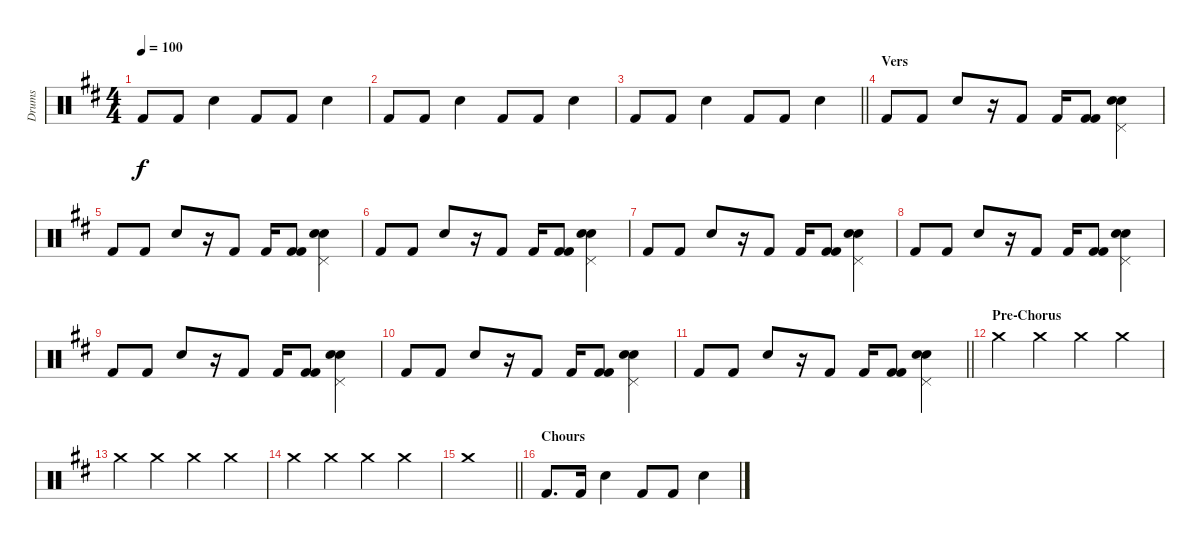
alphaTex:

\track ("Drums" "Drums") {instrument percussion}
\staff {score}
\articulation defaults
\ts (4 4)
\tempo 100
\clef neutral
\ks d "Kick (hit) 2".8{dy f} "Kick (hit) 2".8 "Snare (hit) 2".4 "Kick (hit) 2".8 "Kick (hit) 2".8 "Snare (hit) 2".4
|
"Kick (hit) 2".8 "Kick (hit) 2".8 "Snare (hit) 2".4 "Kick (hit) 2".8 "Kick (hit) 2".8 "Snare (hit) 2".4 |
\barLineRight lightlight "Kick (hit) 2".8 "Kick (hit) 2".8 "Snare (hit) 2".4 "Kick (hit) 2".8 "Kick (hit) 2".8 "Snare (hit) 2".4
|
\section ("" "Vers")
"Kick (hit) 2".8 "Kick (hit) 2".8 "Snare (hit) 2".8 r.16 "Kick (hit) 2".8 "Kick (hit) 2".16 ("Kick (hit) 2" "Kick (hit) 2").8 ("Snare (hit) 2" "Pedal Hi-Hat (hit)" "Electric Snare (hit)").4 |
"Kick (hit) 2".8 "Kick (hit) 2".8 "Snare (hit) 2".8 r.16 "Kick (hit) 2".8 "Kick (hit) 2".16 ("Kick (hit) 2" "Kick (hit) 2").8 ("Snare (hit) 2" "Pedal Hi-Hat (hit)" "Electric Snare (hit)").4 |
"Kick (hit) 2".8 "Kick (hit) 2".8 "Snare (hit) 2".8 r.16 "Kick (hit) 2".8 "Kick (hit) 2".16 ("Kick (hit) 2" "Kick (hit) 2").8 ("Snare (hit) 2" "Pedal Hi-Hat (hit)" "Electric Snare (hit)").4 |
"Kick (hit) 2".8 "Kick (hit) 2".8 "Snare (hit) 2".8 r.16 "Kick (hit) 2".8 "Kick (hit) 2".16 ("Kick (hit) 2" "Kick (hit) 2").8 ("Snare (hit) 2" "Pedal Hi-Hat (hit)" "Electric Snare (hit)").4 |
"Kick (hit) 2".8 "Kick (hit) 2".8 "Snare (hit) 2".8 r.16 "Kick (hit) 2".8 "Kick (hit) 2".16 ("Kick (hit) 2" "Kick (hit) 2").8 ("Snare (hit) 2" "Pedal Hi-Hat (hit)" "Electric Snare (hit)").4 |
"Kick (hit) 2".8 "Kick (hit) 2".8 "Snare (hit) 2".8 r.16 "Kick (hit) 2".8 "Kick (hit) 2".16 ("Kick (hit) 2" "Kick (hit) 2").8 ("Snare (hit) 2" "Pedal Hi-Hat (hit)" "Electric Snare (hit)").4 |
"Kick (hit) 2".8 "Kick (hit) 2".8 "Snare (hit) 2".8 r.16 "Kick (hit) 2".8 "Kick (hit) 2".16 ("Kick (hit) 2" "Kick (hit) 2").8 ("Snare (hit) 2" "Pedal Hi-Hat (hit)" "Electric Snare (hit)").4 |
\barLineRight lightlight "Kick (hit) 2".8 "Kick (hit) 2".8 "Snare (hit) 2".8
r.16 "Kick (hit) 2".8 "Kick (hit) 2".16 ("Kick (hit) 2" "Kick (hit) 2").8 ("Snare (hit) 2" "Pedal Hi-Hat (hit)" "Electric Snare (hit)").4 |
\section ("" "Pre-Chorus")
"Crash medium (hit)".4 "Crash medium (hit)".4 "Crash medium (hit)".4 "Crash medium (hit)".4 |
"Crash medium (hit)".4 "Crash medium (hit)".4 "Crash medium (hit)".4 "Crash medium (hit)".4 |
"Crash medium (hit)".4 "Crash medium (hit)".4 "Crash medium (hit)".4 "Crash medium (hit)".4 |
\barLineRight lightlight "Crash medium (hit)".1
|
\section ("" "Chours")
"Kick (hit) 2".8{d} "Kick (hit) 2".16 "Snare (hit) 2".4 "Kick (hit) 2".8 "Kick (hit) 2".8 "Snare (hit) 2".4
